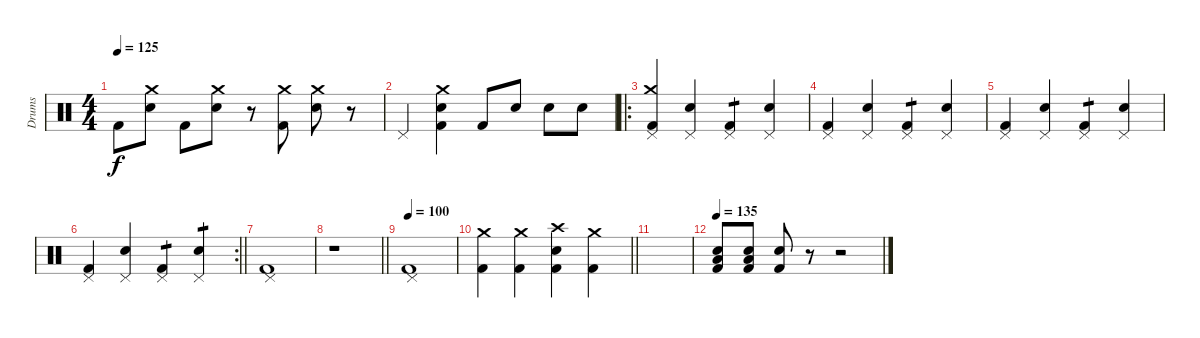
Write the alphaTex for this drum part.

\track ("Drums" "Drums") {instrument percussion}
\staff {score}
\articulation defaults
\ts (4 4)
\tempo 125
\clef neutral
\ks c "Kick (hit) 2".8{dy f}
("Snare (hit) 2" "Crash medium (hit)").8 "Kick (hit) 2".8 ("Snare (hit) 2" "Crash medium (hit)").8 r.8 ("Kick (hit) 2" "Crash medium (hit)").8 ("Snare (hit) 2" "Crash medium (hit)").8 r.8 |
"Pedal Hi-Hat (hit)".4 ("Snare (hit) 2" "Kick (hit) 2" "Crash medium (hit)").4 "Kick (hit) 2".8 "Snare (hit) 2".8 "Snare (hit) 2".8 "Snare (hit) 2".8 |
\ro
("Kick (hit) 2" "Crash medium (hit)" "Pedal Hi-Hat (hit)").4 ("Snare (hit) 2" "Pedal Hi-Hat (hit)").4 ("Kick (hit) 2" "Pedal Hi-Hat (hit)").4{tp 1} ("Snare (hit) 2" "Pedal Hi-Hat (hit)").4 |
("Kick (hit) 2" "Pedal Hi-Hat (hit)").4 ("Snare (hit) 2" "Pedal Hi-Hat (hit)").4 ("Kick (hit) 2" "Pedal Hi-Hat (hit)").4{tp 1} ("Snare (hit) 2" "Pedal Hi-Hat (hit)").4 |
("Kick (hit) 2" "Pedal Hi-Hat (hit)").4 ("Snare (hit) 2" "Pedal Hi-Hat (hit)").4 ("Kick (hit) 2" "Pedal Hi-Hat (hit)").4{tp 1} ("Snare (hit) 2" "Pedal Hi-Hat (hit)").4 |
\rc 2
\barLineRight lightlight
("Kick (hit) 2" "Pedal Hi-Hat (hit)").4 ("Snare (hit) 2" "Pedal Hi-Hat (hit)").4 ("Kick (hit) 2" "Pedal Hi-Hat (hit)").4{tp 1} ("Snare (hit) 2" "Pedal Hi-Hat (hit)").4{tp 1} |
("Kick (hit) 2" "Pedal Hi-Hat (hit)").1 |
\barLineRight lightlight
r.1 |
\tempo 100
("Kick (hit) 2" "Pedal Hi-Hat (hit)").1 |
\barLineRight lightlight
("Kick (hit) 2" "Crash medium (hit)").4 ("Kick (hit) 2" "Crash medium (hit)").4 ("Kick (hit) 2" "Snare (hit) 2" "Crash high (hit)").4 ("Kick (hit) 2" "Crash medium (hit)").4 |
|
\tempo 135
("Low Floor Tom (hit)" "Snare (hit) 2" "Kick (hit) 2").8 ("Low Floor Tom (hit)" "Snare (hit) 2" "Kick (hit) 2").8 ("Snare (hit) 2" "Kick (hit) 2").8 r.8 r.2
